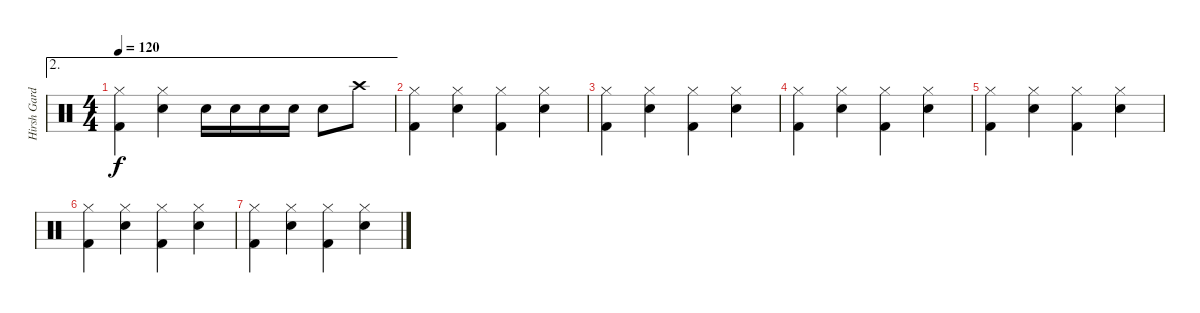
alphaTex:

\track ("Hirsh Gardner" "Hirsh Gard") {instrument percussion}
\staff {score}
\articulation defaults
\ae 2
\ts (4 4)
\tempo 120
\clef neutral
\ks c
("Kick (hit) 2" "Hi-Hat (closed)").4{dy f} ("Snare (hit) 2" "Hi-Hat (closed)").4 "Snare (hit) 2".16 "Snare (hit) 2".16 "Snare (hit) 2".16 "Snare (hit) 2".16 "Snare (hit) 2".8 "Crash high (hit)".8 |
("Kick (hit) 2" "Hi-Hat (closed)").4 ("Snare (hit) 2" "Hi-Hat (closed)").4 ("Kick (hit) 2" "Hi-Hat (closed)").4 ("Snare (hit) 2" "Hi-Hat (closed)").4 |
("Kick (hit) 2" "Hi-Hat (closed)").4 ("Snare (hit) 2" "Hi-Hat (closed)").4 ("Kick (hit) 2" "Hi-Hat (closed)").4 ("Snare (hit) 2" "Hi-Hat (closed)").4 |
("Kick (hit) 2" "Hi-Hat (closed)").4 ("Snare (hit) 2" "Hi-Hat (closed)").4 ("Kick (hit) 2" "Hi-Hat (closed)").4 ("Snare (hit) 2" "Hi-Hat (closed)").4 |
("Kick (hit) 2" "Hi-Hat (closed)").4 ("Snare (hit) 2" "Hi-Hat (closed)").4 ("Kick (hit) 2" "Hi-Hat (closed)").4 ("Snare (hit) 2" "Hi-Hat (closed)").4 |
("Kick (hit) 2" "Hi-Hat (closed)").4 ("Snare (hit) 2" "Hi-Hat (closed)").4 ("Kick (hit) 2" "Hi-Hat (closed)").4 ("Snare (hit) 2" "Hi-Hat (closed)").4 |
("Kick (hit) 2" "Hi-Hat (closed)").4 ("Snare (hit) 2" "Hi-Hat (closed)").4 ("Kick (hit) 2" "Hi-Hat (closed)").4 ("Snare (hit) 2" "Hi-Hat (closed)").4
